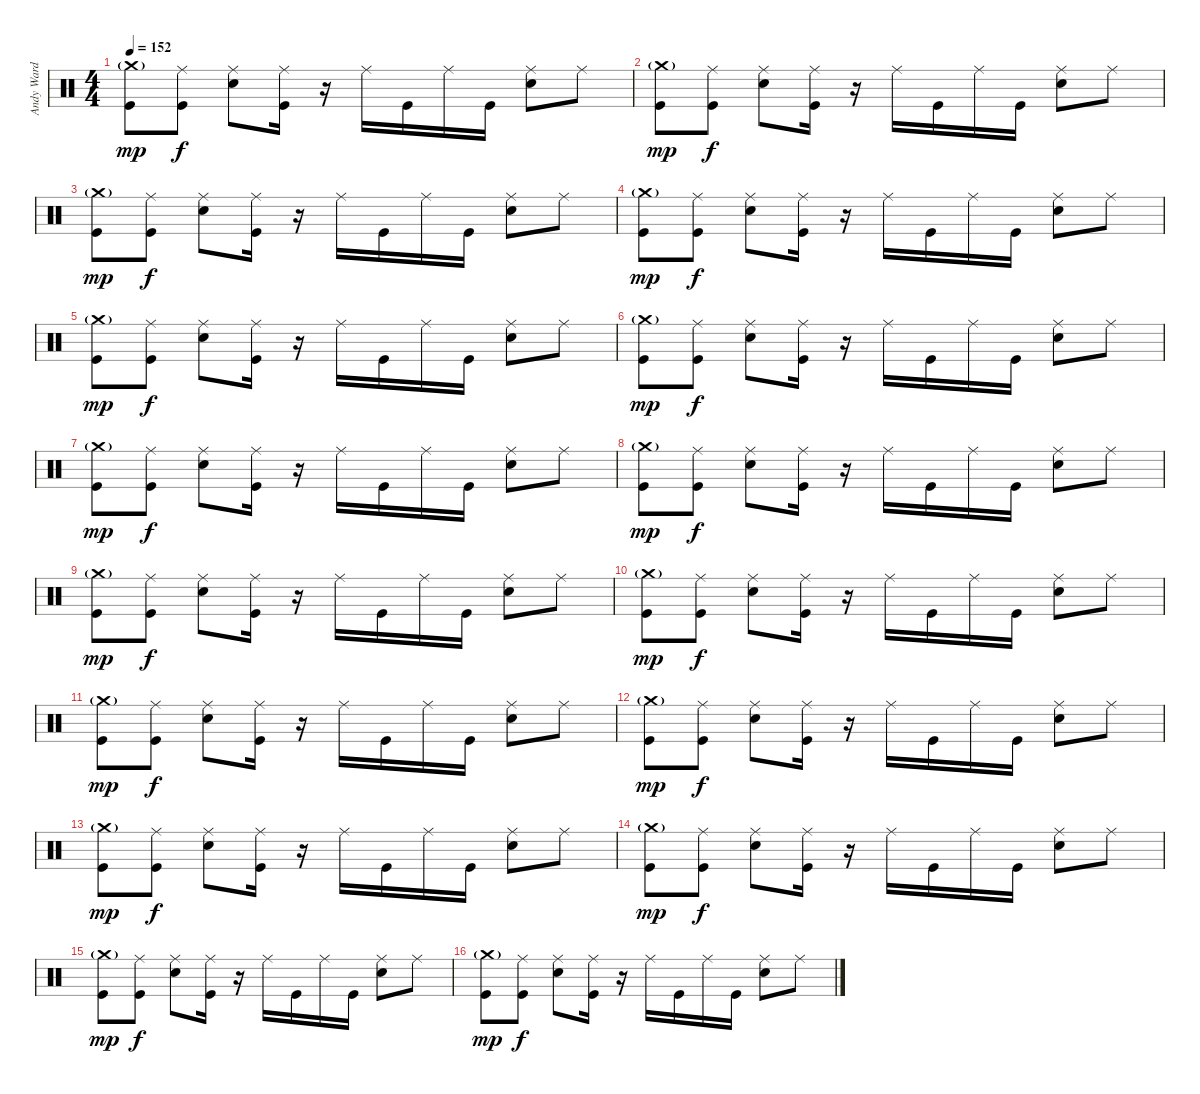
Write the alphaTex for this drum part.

\track ("Andy Ward (Drums)" "Andy Ward ") {instrument percussion}
\staff {score}
\articulation defaults
\ts (4 4)
\tempo 152
\clef neutral
\ks c
("Crash medium (hit)"{g} "Kick (hit)").8{dy mp} ("Ride (middle)" "Kick (hit)").8{dy f} ("Ride (middle)" "Electric Snare (hit)").8 ("Ride (middle)" "Kick (hit)").16 r.16 "Ride (middle)".16 "Kick (hit)".16 "Ride (middle)".16 "Kick (hit)".16 ("Ride (middle)" "Electric Snare (hit)").8 "Ride (middle)".8 |
("Crash medium (hit)"{g} "Kick (hit)").8{dy mp} ("Ride (middle)" "Kick (hit)").8{dy f} ("Ride (middle)" "Electric Snare (hit)").8 ("Ride (middle)" "Kick (hit)").16 r.16 "Ride (middle)".16 "Kick (hit)".16 "Ride (middle)".16 "Kick (hit)".16 ("Ride (middle)" "Electric Snare (hit)").8 "Ride (middle)".8 |
("Crash medium (hit)"{g} "Kick (hit)").8{dy mp} ("Ride (middle)" "Kick (hit)").8{dy f} ("Ride (middle)" "Electric Snare (hit)").8 ("Ride (middle)" "Kick (hit)").16 r.16 "Ride (middle)".16 "Kick (hit)".16 "Ride (middle)".16 "Kick (hit)".16 ("Ride (middle)" "Electric Snare (hit)").8 "Ride (middle)".8 |
("Crash medium (hit)"{g} "Kick (hit)").8{dy mp} ("Ride (middle)" "Kick (hit)").8{dy f} ("Ride (middle)" "Electric Snare (hit)").8 ("Ride (middle)" "Kick (hit)").16 r.16 "Ride (middle)".16 "Kick (hit)".16 "Ride (middle)".16 "Kick (hit)".16 ("Ride (middle)" "Electric Snare (hit)").8 "Ride (middle)".8 |
("Crash medium (hit)"{g} "Kick (hit)").8{dy mp} ("Ride (middle)" "Kick (hit)").8{dy f} ("Ride (middle)" "Electric Snare (hit)").8 ("Ride (middle)" "Kick (hit)").16 r.16 "Ride (middle)".16 "Kick (hit)".16 "Ride (middle)".16 "Kick (hit)".16 ("Ride (middle)" "Electric Snare (hit)").8 "Ride (middle)".8 |
("Crash medium (hit)"{g} "Kick (hit)").8{dy mp} ("Ride (middle)" "Kick (hit)").8{dy f} ("Ride (middle)" "Electric Snare (hit)").8 ("Ride (middle)" "Kick (hit)").16 r.16 "Ride (middle)".16 "Kick (hit)".16 "Ride (middle)".16 "Kick (hit)".16 ("Ride (middle)" "Electric Snare (hit)").8 "Ride (middle)".8 |
("Crash medium (hit)"{g} "Kick (hit)").8{dy mp} ("Ride (middle)" "Kick (hit)").8{dy f} ("Ride (middle)" "Electric Snare (hit)").8 ("Ride (middle)" "Kick (hit)").16 r.16 "Ride (middle)".16 "Kick (hit)".16 "Ride (middle)".16 "Kick (hit)".16 ("Ride (middle)" "Electric Snare (hit)").8 "Ride (middle)".8 |
("Crash medium (hit)"{g} "Kick (hit)").8{dy mp} ("Ride (middle)" "Kick (hit)").8{dy f} ("Ride (middle)" "Electric Snare (hit)").8 ("Ride (middle)" "Kick (hit)").16 r.16 "Ride (middle)".16 "Kick (hit)".16 "Ride (middle)".16 "Kick (hit)".16 ("Ride (middle)" "Electric Snare (hit)").8 "Ride (middle)".8 |
("Crash medium (hit)"{g} "Kick (hit)").8{dy mp} ("Ride (middle)" "Kick (hit)").8{dy f} ("Ride (middle)" "Electric Snare (hit)").8 ("Ride (middle)" "Kick (hit)").16 r.16 "Ride (middle)".16 "Kick (hit)".16 "Ride (middle)".16 "Kick (hit)".16 ("Ride (middle)" "Electric Snare (hit)").8 "Ride (middle)".8 |
("Crash medium (hit)"{g} "Kick (hit)").8{dy mp} ("Ride (middle)" "Kick (hit)").8{dy f} ("Ride (middle)" "Electric Snare (hit)").8 ("Ride (middle)" "Kick (hit)").16 r.16 "Ride (middle)".16 "Kick (hit)".16 "Ride (middle)".16 "Kick (hit)".16 ("Ride (middle)" "Electric Snare (hit)").8 "Ride (middle)".8 |
("Crash medium (hit)"{g} "Kick (hit)").8{dy mp} ("Ride (middle)" "Kick (hit)").8{dy f} ("Ride (middle)" "Electric Snare (hit)").8 ("Ride (middle)" "Kick (hit)").16 r.16 "Ride (middle)".16 "Kick (hit)".16 "Ride (middle)".16 "Kick (hit)".16 ("Ride (middle)" "Electric Snare (hit)").8 "Ride (middle)".8 |
("Crash medium (hit)"{g} "Kick (hit)").8{dy mp} ("Ride (middle)" "Kick (hit)").8{dy f} ("Ride (middle)" "Electric Snare (hit)").8 ("Ride (middle)" "Kick (hit)").16 r.16 "Ride (middle)".16 "Kick (hit)".16 "Ride (middle)".16 "Kick (hit)".16 ("Ride (middle)" "Electric Snare (hit)").8 "Ride (middle)".8 |
("Crash medium (hit)"{g} "Kick (hit)").8{dy mp} ("Ride (middle)" "Kick (hit)").8{dy f} ("Ride (middle)" "Electric Snare (hit)").8 ("Ride (middle)" "Kick (hit)").16 r.16 "Ride (middle)".16 "Kick (hit)".16 "Ride (middle)".16 "Kick (hit)".16 ("Ride (middle)" "Electric Snare (hit)").8 "Ride (middle)".8 |
("Crash medium (hit)"{g} "Kick (hit)").8{dy mp} ("Ride (middle)" "Kick (hit)").8{dy f} ("Ride (middle)" "Electric Snare (hit)").8 ("Ride (middle)" "Kick (hit)").16 r.16 "Ride (middle)".16 "Kick (hit)".16 "Ride (middle)".16 "Kick (hit)".16 ("Ride (middle)" "Electric Snare (hit)").8 "Ride (middle)".8 |
("Crash medium (hit)"{g} "Kick (hit)").8{dy mp} ("Ride (middle)" "Kick (hit)").8{dy f} ("Ride (middle)" "Electric Snare (hit)").8 ("Ride (middle)" "Kick (hit)").16 r.16 "Ride (middle)".16 "Kick (hit)".16 "Ride (middle)".16 "Kick (hit)".16 ("Ride (middle)" "Electric Snare (hit)").8 "Ride (middle)".8 |
("Crash medium (hit)"{g} "Kick (hit)").8{dy mp} ("Ride (middle)" "Kick (hit)").8{dy f} ("Ride (middle)" "Electric Snare (hit)").8 ("Ride (middle)" "Kick (hit)").16 r.16 "Ride (middle)".16 "Kick (hit)".16 "Ride (middle)".16 "Kick (hit)".16 ("Ride (middle)" "Electric Snare (hit)").8 "Ride (middle)".8
